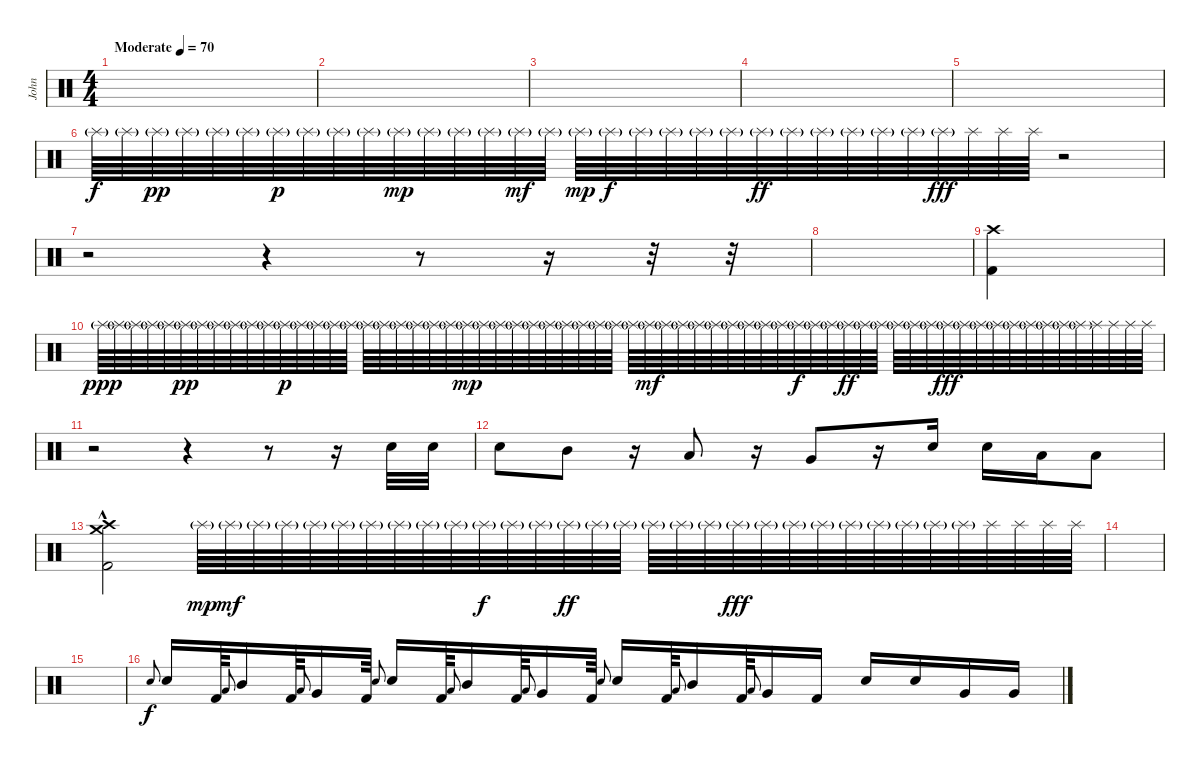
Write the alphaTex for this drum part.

\track ("John" "John") {instrument percussion}
\staff {score}
\articulation defaults
\ts (4 4)
\tempo (70 "Moderate")
\clef neutral
\ks c
|
|
|
|
|
"Splash (hit)"{g}.64{volume 16} "Splash (hit)"{g}.64 "Splash (hit)"{g}.64{dy pp} "Splash (hit)"{g}.64 "Splash (hit)"{g}.64 "Splash (hit)"{g}.64 "Splash (hit)"{g}.64{dy p} "Splash (hit)"{g}.64 "Splash (hit)"{g}.64 "Splash (hit)"{g}.64 "Splash (hit)"{g}.64{dy mp} "Splash (hit)"{g}.64 "Splash (hit)"{g}.64 "Splash (hit)"{g}.64 "Splash (hit)"{g}.64{dy mf} "Splash (hit)"{g}.64 "Splash (hit)"{g}.64{dy mp} "Splash (hit)"{g}.64{dy f} "Splash (hit)"{g}.64 "Splash (hit)"{g}.64 "Splash (hit)"{g}.64 "Splash (hit)"{g}.64 "Splash (hit)"{g}.64{dy ff} "Splash (hit)"{g}.64 "Splash (hit)"{g}.64 "Splash (hit)"{g}.64 "Splash (hit)"{g}.64 "Splash (hit)"{g}.64 "Splash (hit)"{g}.64{dy fff} "Splash (hit)".64 "Splash (hit)".64 "Splash (hit)".64 r.2 |
r.2 r.4 r.8 r.16 r.32 r.32 |
|
("Crash high (hit)" "Kick (hit) 2").4 |
"Splash (hit)"{g}.64{dy ppp volume 16} "Splash (hit)"{g}.64 "Splash (hit)"{g}.64 "Splash (hit)"{g}.64 "Splash (hit)"{g}.64 "Splash (hit)"{g}.64{dy pp} "Splash (hit)"{g}.64 "Splash (hit)"{g}.64 "Splash (hit)"{g}.64 "Splash (hit)"{g}.64 "Splash (hit)"{g}.64 "Splash (hit)"{g}.64{dy p} "Splash (hit)"{g}.64 "Splash (hit)"{g}.64 "Splash (hit)"{g}.64 "Splash (hit)"{g}.64 "Splash (hit)"{g}.64 "Splash (hit)"{g}.64 "Splash (hit)"{g}.64 "Splash (hit)"{g}.64 "Splash (hit)"{g}.64 "Splash (hit)"{g}.64 "Splash (hit)"{g}.64{dy mp} "Splash (hit)"{g}.64 "Splash (hit)"{g}.64 "Splash (hit)"{g}.64 "Splash (hit)"{g}.64 "Splash (hit)"{g}.64 "Splash (hit)"{g}.64 "Splash (hit)"{g}.64 "Splash (hit)"{g}.64 "Splash (hit)"{g}.64 "Splash (hit)"{g}.64{volume 16} "Splash (hit)"{g}.64{dy mf} "Splash (hit)"{g}.64 "Splash (hit)"{g}.64 "Splash (hit)"{g}.64 "Splash (hit)"{g}.64 "Splash (hit)"{g}.64 "Splash (hit)"{g}.64 "Splash (hit)"{g}.64 "Splash (hit)"{g}.64 "Splash (hit)"{g}.64{dy f} "Splash (hit)"{g}.64 "Splash (hit)"{g}.64 "Splash (hit)"{g}.64{dy ff} "Splash (hit)"{g}.64 "Splash (hit)"{g}.64 "Splash (hit)"{g}.64 "Splash (hit)"{g}.64 "Splash (hit)"{g}.64 "Splash (hit)"{g}.64{dy fff} "Splash (hit)"{g}.64 "Splash (hit)"{g}.64 "Splash (hit)"{g}.64 "Splash (hit)"{g}.64 "Splash (hit)"{g}.64 "Splash (hit)"{g}.64 "Splash (hit)"{g}.64 "Splash (hit)"{g}.64 "Splash (hit)".64 "Splash (hit)".64 "Splash (hit)".64 "Splash (hit)".64 |
r.2 r.4 r.8 r.16 "Electric Snare (hit)".32 "Electric Snare (hit)".32 |
"Electric Snare (hit)".8 "Mid Tom (hit)".8 r.16 "Low Tom (hit)".8 r.16 "Very Low Tom (hit)".8 r.16 "Electric Snare (hit)".16 "Electric Snare (hit)".16 "Low Tom (hit)".16 "Low Tom (hit)".8 |
("Crash high (hit)"{hac} "Crash medium (hit)" "Kick (hit) 2"{hac}).2 "Splash (hit)"{g}.64{dy mp volume 16} "Splash (hit)"{g}.64{dy mf} "Splash (hit)"{g}.64 "Splash (hit)"{g}.64 "Splash (hit)"{g}.64 "Splash (hit)"{g}.64 "Splash (hit)"{g}.64 "Splash (hit)"{g}.64 "Splash (hit)"{g}.64 "Splash (hit)"{g}.64 "Splash (hit)"{g}.64{dy f} "Splash (hit)"{g}.64 "Splash (hit)"{g}.64 "Splash (hit)"{g}.64{dy ff} "Splash (hit)"{g}.64 "Splash (hit)"{g}.64 "Splash (hit)"{g}.64 "Splash (hit)"{g}.64 "Splash (hit)"{g}.64 "Splash (hit)"{g}.64{dy fff} "Splash (hit)"{g}.64 "Splash (hit)"{g}.64 "Splash (hit)"{g}.64 "Splash (hit)"{g}.64 "Splash (hit)"{g}.64 "Splash (hit)"{g}.64 "Splash (hit)"{g}.64 "Splash (hit)"{g}.64 "Splash (hit)".64 "Splash (hit)".64 "Splash (hit)".64 "Splash (hit)".64 |
|
|
"Snare (hit) 2".8{gr onbeat dy f} "Electric Snare (hit)".16 "Kick (hit) 2".64 "Low Tom (hit)".8{gr onbeat} "Mid Tom (hit)".16 "Kick (hit) 2".64 "Low Floor Tom (hit)".8{gr onbeat} "Very Low Tom (hit)".16 "Kick (hit) 2".64 "Snare (hit) 2".8{gr onbeat} "Electric Snare (hit)".16 "Kick (hit) 2".64 "Low Tom (hit)".8{gr onbeat} "Mid Tom (hit)".16 "Kick (hit) 2".64 "Low Floor Tom (hit)".8{gr onbeat} "Very Low Tom (hit)".16 "Kick (hit) 2".64 "Snare (hit) 2".8{gr onbeat} "Electric Snare (hit)".16 "Kick (hit) 2".64 "Low Tom (hit)".8{gr onbeat} "Mid Tom (hit)".16 "Kick (hit) 2".64 "Low Floor Tom (hit)".8{gr onbeat} "Very Low Tom (hit)".16 "Kick (hit) 2".16 "Electric Snare (hit)".16 "Electric Snare (hit)".16 "Very Low Tom (hit)".16 "Very Low Tom (hit)".16
